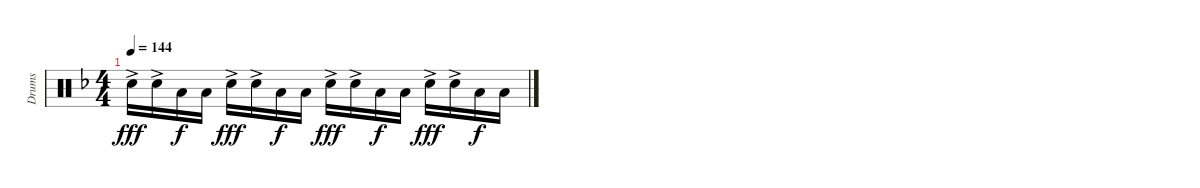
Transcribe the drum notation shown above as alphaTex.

\track ("Drums" "Drums") {instrument percussion}
\staff {score}
\articulation defaults
\ts (4 4)
\tempo 144
\clef neutral
\ks dminor "Snare (hit) 2"{ac}.16{dy fff} "Snare (hit) 2"{ac}.16 "Low Floor Tom (hit)".16{dy f} "Low Floor Tom (hit)".16 "Snare (hit) 2"{ac}.16{dy fff} "Snare (hit) 2"{ac}.16 "Low Floor Tom (hit)".16{dy f} "Low Floor Tom (hit)".16 "Snare (hit) 2"{ac}.16{dy fff} "Snare (hit) 2"{ac}.16 "Low Floor Tom (hit)".16{dy f} "Low Floor Tom (hit)".16 "Snare (hit) 2"{ac}.16{dy fff} "Snare (hit) 2"{ac}.16 "Low Floor Tom (hit)".16{dy f} "Low Floor Tom (hit)".16
